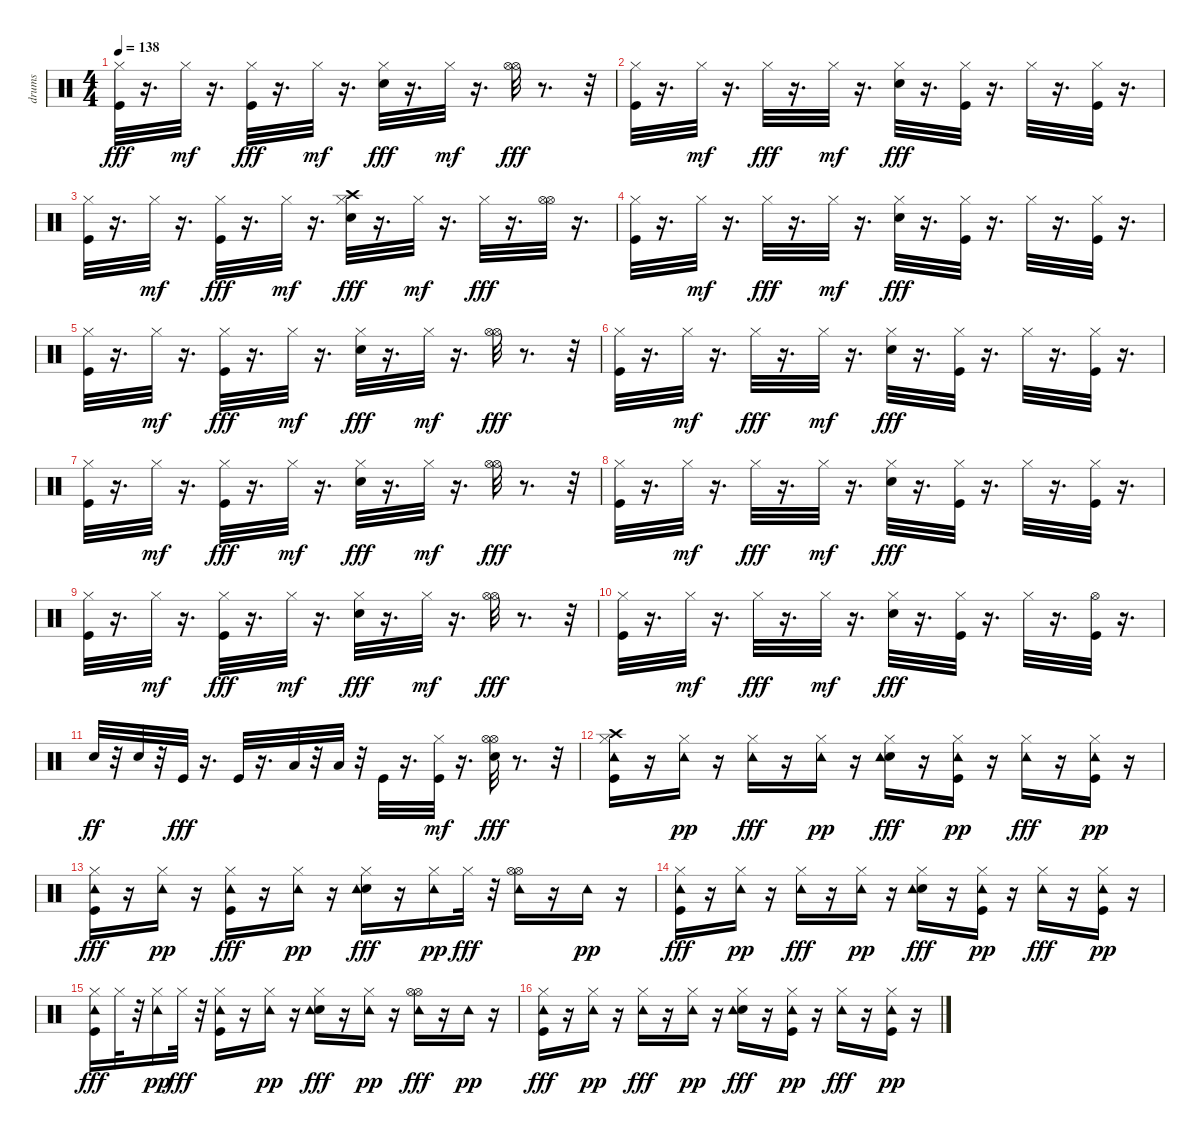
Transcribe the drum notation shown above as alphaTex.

\track ("drums" "drums") {instrument percussion}
\staff {score}
\articulation defaults
\ts (4 4)
\tempo 138
\clef neutral
\ks c
("Hi-Hat (closed)" "Kick (hit)").32{dy fff} r.16{d} "Hi-Hat (closed)".32{dy mf} r.16{d} ("Hi-Hat (closed)" "Kick (hit)").32{dy fff} r.16{d} "Hi-Hat (closed)".32{dy mf} r.16{d} ("Metronome (bell)" "Hi-Hat (closed)").32{dy fff} r.16{d} "Hi-Hat (closed)".32{dy mf} r.16{d} ("Hi-Hat (open)" "Hi-Hat (open)").32{dy fff} r.8{d} r.32 |
("Hi-Hat (closed)" "Kick (hit)").32 r.16{d} "Hi-Hat (closed)".32{dy mf} r.16{d} "Hi-Hat (closed)".32{dy fff} r.16{d} "Hi-Hat (closed)".32{dy mf} r.16{d} ("Metronome (bell)" "Hi-Hat (closed)").32{dy fff} r.16{d} ("Hi-Hat (closed)" "Kick (hit)").32 r.16{d} "Hi-Hat (closed)".32 r.16{d} ("Hi-Hat (closed)" "Kick (hit)").32 r.16{d} |
("Hi-Hat (closed)" "Kick (hit)").32 r.16{d} "Hi-Hat (closed)".32{dy mf} r.16{d} ("Hi-Hat (closed)" "Kick (hit)").32{dy fff} r.16{d} "Hi-Hat (closed)".32{dy mf} r.16{d} ("Crash high (hit)" "Metronome (bell)" "Hi-Hat (closed)").32{dy fff} r.16{d} "Hi-Hat (closed)".32{dy mf} r.16{d} "Hi-Hat (closed)".32{dy fff} r.16{d} ("Hi-Hat (open)" "Hi-Hat (open)").32 r.16{d} |
("Hi-Hat (closed)" "Kick (hit)").32 r.16{d} "Hi-Hat (closed)".32{dy mf} r.16{d} "Hi-Hat (closed)".32{dy fff} r.16{d} "Hi-Hat (closed)".32{dy mf} r.16{d} ("Metronome (bell)" "Hi-Hat (closed)").32{dy fff} r.16{d} ("Hi-Hat (closed)" "Kick (hit)").32 r.16{d} "Hi-Hat (closed)".32 r.16{d} ("Hi-Hat (closed)" "Kick (hit)").32 r.16{d} |
("Hi-Hat (closed)" "Kick (hit)").32 r.16{d} "Hi-Hat (closed)".32{dy mf} r.16{d} ("Hi-Hat (closed)" "Kick (hit)").32{dy fff} r.16{d} "Hi-Hat (closed)".32{dy mf} r.16{d} ("Metronome (bell)" "Hi-Hat (closed)").32{dy fff} r.16{d} "Hi-Hat (closed)".32{dy mf} r.16{d} ("Hi-Hat (open)" "Hi-Hat (open)").32{dy fff} r.8{d} r.32 |
("Hi-Hat (closed)" "Kick (hit)").32 r.16{d} "Hi-Hat (closed)".32{dy mf} r.16{d} "Hi-Hat (closed)".32{dy fff} r.16{d} "Hi-Hat (closed)".32{dy mf} r.16{d} ("Metronome (bell)" "Hi-Hat (closed)").32{dy fff} r.16{d} ("Hi-Hat (closed)" "Kick (hit)").32 r.16{d} "Hi-Hat (closed)".32 r.16{d} ("Hi-Hat (closed)" "Kick (hit)").32 r.16{d} |
("Hi-Hat (closed)" "Kick (hit)").32 r.16{d} "Hi-Hat (closed)".32{dy mf} r.16{d} ("Hi-Hat (closed)" "Kick (hit)").32{dy fff} r.16{d} "Hi-Hat (closed)".32{dy mf} r.16{d} ("Metronome (bell)" "Hi-Hat (closed)").32{dy fff} r.16{d} "Hi-Hat (closed)".32{dy mf} r.16{d} ("Hi-Hat (open)" "Hi-Hat (open)").32{dy fff} r.8{d} r.32 |
("Hi-Hat (closed)" "Kick (hit)").32 r.16{d} "Hi-Hat (closed)".32{dy mf} r.16{d} "Hi-Hat (closed)".32{dy fff} r.16{d} "Hi-Hat (closed)".32{dy mf} r.16{d} ("Metronome (bell)" "Hi-Hat (closed)").32{dy fff} r.16{d} ("Hi-Hat (closed)" "Kick (hit)").32 r.16{d} "Hi-Hat (closed)".32 r.16{d} ("Hi-Hat (closed)" "Kick (hit)").32 r.16{d} |
("Hi-Hat (closed)" "Kick (hit)").32 r.16{d} "Hi-Hat (closed)".32{dy mf} r.16{d} ("Hi-Hat (closed)" "Kick (hit)").32{dy fff} r.16{d} "Hi-Hat (closed)".32{dy mf} r.16{d} ("Metronome (bell)" "Hi-Hat (closed)").32{dy fff} r.16{d} "Hi-Hat (closed)".32{dy mf} r.16{d} ("Hi-Hat (open)" "Hi-Hat (open)").32{dy fff} r.8{d} r.32 |
("Hi-Hat (closed)" "Kick (hit)").32 r.16{d} "Hi-Hat (closed)".32{dy mf} r.16{d} "Hi-Hat (closed)".32{dy fff} r.16{d} "Hi-Hat (closed)".32{dy mf} r.16{d} ("Metronome (bell)" "Hi-Hat (closed)").32{dy fff} r.16{d} ("Hi-Hat (closed)" "Kick (hit)").32 r.16{d} "Hi-Hat (closed)".32 r.16{d} ("Hi-Hat (open)" "Kick (hit)").32 r.16{d} |
"Metronome (bell)".32{dy ff} r.32 "Metronome (bell)".32 r.32 "Kick (hit)".32{dy fff} r.16{d} "Kick (hit)".32 r.16{d} "Low Tom (hit)".32 r.32 "Low Tom (hit)".32 r.32 "Kick (hit)".32 r.16{d} ("Kick (hit)" "Hi-Hat (closed)").32{dy mf} r.16{d} ("Metronome (bell)" "Hi-Hat (open)" "Hi-Hat (open)").32{dy fff} r.8{d} r.32 |
("Crash high (hit)" "Hi-Hat (closed)" "Kick (hit)" "Tambourine (hit)").16 r.16 ("Hi-Hat (closed)" "Tambourine (hit)").16{dy pp} r.16 ("Hi-Hat (closed)" "Tambourine (hit)").16{dy fff} r.16 ("Hi-Hat (closed)" "Tambourine (hit)").16{dy pp} r.16 ("Metronome (bell)" "Hi-Hat (closed)" "Tambourine (hit)").16{dy fff} r.16 ("Hi-Hat (closed)" "Kick (hit)" "Tambourine (hit)").16{dy pp} r.16 ("Hi-Hat (closed)" "Tambourine (hit)").16{dy fff} r.16 ("Hi-Hat (closed)" "Kick (hit)" "Tambourine (hit)").16{dy pp} r.16 |
("Hi-Hat (closed)" "Kick (hit)" "Tambourine (hit)").16{dy fff} r.16 ("Hi-Hat (closed)" "Tambourine (hit)").16{dy pp} r.16 ("Hi-Hat (closed)" "Kick (hit)" "Tambourine (hit)").16{dy fff} r.16 ("Hi-Hat (closed)" "Tambourine (hit)").16{dy pp} r.16 ("Metronome (bell)" "Hi-Hat (closed)" "Tambourine (hit)").16{dy fff} r.16 ("Hi-Hat (closed)" "Tambourine (hit)").16{dy pp} "Hi-Hat (closed)".32{dy fff} r.32 ("Hi-Hat (open)" "Hi-Hat (open)" "Tambourine (hit)").16 r.16 "Tambourine (hit)".16{dy pp} r.16 |
("Hi-Hat (closed)" "Kick (hit)" "Tambourine (hit)").16{dy fff} r.16 ("Hi-Hat (closed)" "Tambourine (hit)").16{dy pp} r.16 ("Hi-Hat (closed)" "Tambourine (hit)").16{dy fff} r.16 ("Hi-Hat (closed)" "Tambourine (hit)").16{dy pp} r.16 ("Metronome (bell)" "Hi-Hat (closed)" "Tambourine (hit)").16{dy fff} r.16 ("Hi-Hat (closed)" "Kick (hit)" "Tambourine (hit)").16{dy pp} r.16 ("Hi-Hat (closed)" "Tambourine (hit)").16{dy fff} r.16 ("Hi-Hat (closed)" "Kick (hit)" "Tambourine (hit)").16{dy pp} r.16 |
("Hi-Hat (closed)" "Kick (hit)" "Tambourine (hit)").16{dy fff} "Hi-Hat (closed)".32 r.32 ("Hi-Hat (closed)" "Tambourine (hit)").16{dy pp} "Hi-Hat (closed)".32{dy fff} r.32 ("Hi-Hat (closed)" "Kick (hit)" "Tambourine (hit)").16 r.16 ("Hi-Hat (closed)" "Tambourine (hit)").16{dy pp} r.16 ("Metronome (bell)" "Hi-Hat (closed)" "Tambourine (hit)").16{dy fff} r.16 ("Hi-Hat (closed)" "Tambourine (hit)").16{dy pp} r.16 ("Hi-Hat (open)" "Hi-Hat (open)" "Tambourine (hit)").16{dy fff} r.16 "Tambourine (hit)".16{dy pp} r.16 |
("Hi-Hat (closed)" "Kick (hit)" "Tambourine (hit)").16{dy fff} r.16 ("Hi-Hat (closed)" "Tambourine (hit)").16{dy pp} r.16 ("Hi-Hat (closed)" "Tambourine (hit)").16{dy fff} r.16 ("Hi-Hat (closed)" "Tambourine (hit)").16{dy pp} r.16 ("Metronome (bell)" "Hi-Hat (closed)" "Tambourine (hit)").16{dy fff} r.16 ("Hi-Hat (closed)" "Kick (hit)" "Tambourine (hit)").16{dy pp} r.16 ("Hi-Hat (closed)" "Tambourine (hit)").16{dy fff} r.16 ("Hi-Hat (closed)" "Kick (hit)" "Tambourine (hit)").16{dy pp} r.16
